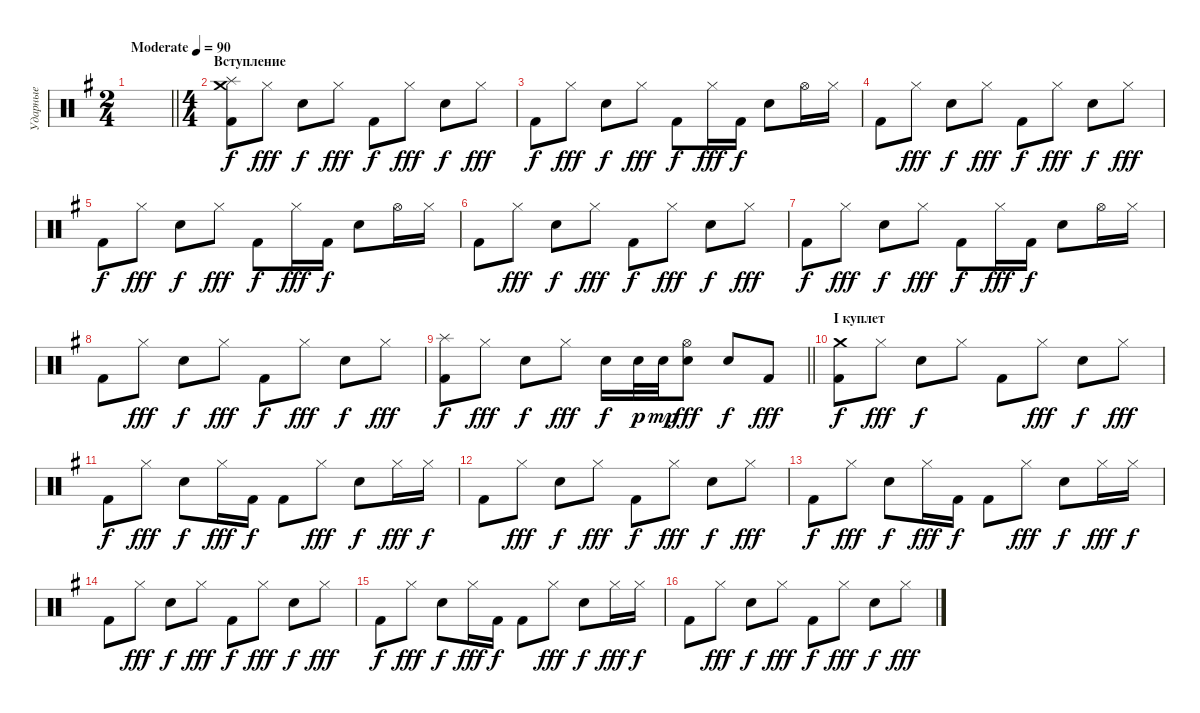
\track ("Ударные" "Ударные") {instrument percussion}
\staff {score}
\articulation defaults
\ts (2 4)
\tempo (90 "Moderate")
\clef neutral
\barLineRight lightlight
\ks eminor
|
\ts (4 4)
\section ("" "Вступление")
("Splash (hit)" "Kick (hit) 2" "Crash medium (hit)").8 "Hi-Hat (closed)".8{dy fff} "Snare (hit) 2".8{dy f} "Hi-Hat (closed)".8{dy fff} "Kick (hit) 2".8{dy f} "Hi-Hat (closed)".8{dy fff} "Snare (hit) 2".8{dy f} "Hi-Hat (closed)".8{dy fff} |
"Kick (hit) 2".8{dy f} "Hi-Hat (closed)".8{dy fff} "Snare (hit) 2".8{dy f} "Hi-Hat (closed)".8{dy fff} "Kick (hit) 2".8{dy f} "Hi-Hat (closed)".16{dy fff} "Kick (hit) 2".16{dy f} "Snare (hit) 2".8 "Hi-Hat (open)".16 "Hi-Hat (closed)".16 |
"Kick (hit) 2".8 "Hi-Hat (closed)".8{dy fff} "Snare (hit) 2".8{dy f} "Hi-Hat (closed)".8{dy fff} "Kick (hit) 2".8{dy f} "Hi-Hat (closed)".8{dy fff} "Snare (hit) 2".8{dy f} "Hi-Hat (closed)".8{dy fff} |
"Kick (hit) 2".8{dy f} "Hi-Hat (closed)".8{dy fff} "Snare (hit) 2".8{dy f} "Hi-Hat (closed)".8{dy fff} "Kick (hit) 2".8{dy f} "Hi-Hat (closed)".16{dy fff} "Kick (hit) 2".16{dy f} "Snare (hit) 2".8 "Hi-Hat (open)".16 "Hi-Hat (closed)".16 |
"Kick (hit) 2".8 "Hi-Hat (closed)".8{dy fff} "Snare (hit) 2".8{dy f} "Hi-Hat (closed)".8{dy fff} "Kick (hit) 2".8{dy f} "Hi-Hat (closed)".8{dy fff} "Snare (hit) 2".8{dy f} "Hi-Hat (closed)".8{dy fff} |
"Kick (hit) 2".8{dy f} "Hi-Hat (closed)".8{dy fff} "Snare (hit) 2".8{dy f} "Hi-Hat (closed)".8{dy fff} "Kick (hit) 2".8{dy f} "Hi-Hat (closed)".16{dy fff} "Kick (hit) 2".16{dy f} "Snare (hit) 2".8 "Hi-Hat (open)".16 "Hi-Hat (closed)".16 |
"Kick (hit) 2".8 "Hi-Hat (closed)".8{dy fff} "Snare (hit) 2".8{dy f} "Hi-Hat (closed)".8{dy fff} "Kick (hit) 2".8{dy f} "Hi-Hat (closed)".8{dy fff} "Snare (hit) 2".8{dy f} "Hi-Hat (closed)".8{dy fff} |
\barLineRight lightlight
("Splash (hit)" "Kick (hit) 2").8{dy f} "Hi-Hat (closed)".8{dy fff} "Snare (hit) 2".8{dy f} "Hi-Hat (closed)".8{dy fff} "Snare (hit) 2".16{dy f} "Snare (hit) 2".32{dy p} "Snare (hit) 2".32{dy mp} ("Hi-Hat (open)" "Snare (hit) 2").8{dy fff} "Electric Snare (hit)".8{dy f} "Kick (hit) 2".8{dy fff} |
\section ("" "I куплет")
("Crash medium (hit)" "Kick (hit) 2").8{dy f} "Hi-Hat (closed)".8{dy fff} "Snare (hit) 2".8{dy f} "Hi-Hat (closed)".8 "Kick (hit) 2".8 "Hi-Hat (closed)".8{dy fff} "Snare (hit) 2".8{dy f} "Hi-Hat (closed)".8{dy fff} |
"Kick (hit) 2".8{dy f} "Hi-Hat (closed)".8{dy fff} "Snare (hit) 2".8{dy f} "Hi-Hat (closed)".16{dy fff} "Kick (hit) 2".16{dy f} "Kick (hit) 2".8 "Hi-Hat (closed)".8{dy fff} "Snare (hit) 2".8{dy f} "Hi-Hat (closed)".16{dy fff} "Hi-Hat (closed)".16{dy f} |
"Kick (hit) 2".8 "Hi-Hat (closed)".8{dy fff} "Snare (hit) 2".8{dy f} "Hi-Hat (closed)".8{dy fff} "Kick (hit) 2".8{dy f} "Hi-Hat (closed)".8{dy fff} "Snare (hit) 2".8{dy f} "Hi-Hat (closed)".8{dy fff} |
"Kick (hit) 2".8{dy f} "Hi-Hat (closed)".8{dy fff} "Snare (hit) 2".8{dy f} "Hi-Hat (closed)".16{dy fff} "Kick (hit) 2".16{dy f} "Kick (hit) 2".8 "Hi-Hat (closed)".8{dy fff} "Snare (hit) 2".8{dy f} "Hi-Hat (closed)".16{dy fff} "Hi-Hat (closed)".16{dy f} |
"Kick (hit) 2".8 "Hi-Hat (closed)".8{dy fff} "Snare (hit) 2".8{dy f} "Hi-Hat (closed)".8{dy fff} "Kick (hit) 2".8{dy f} "Hi-Hat (closed)".8{dy fff} "Snare (hit) 2".8{dy f} "Hi-Hat (closed)".8{dy fff} |
"Kick (hit) 2".8{dy f} "Hi-Hat (closed)".8{dy fff} "Snare (hit) 2".8{dy f} "Hi-Hat (closed)".16{dy fff} "Kick (hit) 2".16{dy f} "Kick (hit) 2".8 "Hi-Hat (closed)".8{dy fff} "Snare (hit) 2".8{dy f} "Hi-Hat (closed)".16{dy fff} "Hi-Hat (closed)".16{dy f} |
"Kick (hit) 2".8 "Hi-Hat (closed)".8{dy fff} "Snare (hit) 2".8{dy f} "Hi-Hat (closed)".8{dy fff} "Kick (hit) 2".8{dy f} "Hi-Hat (closed)".8{dy fff} "Snare (hit) 2".8{dy f} "Hi-Hat (closed)".8{dy fff}
